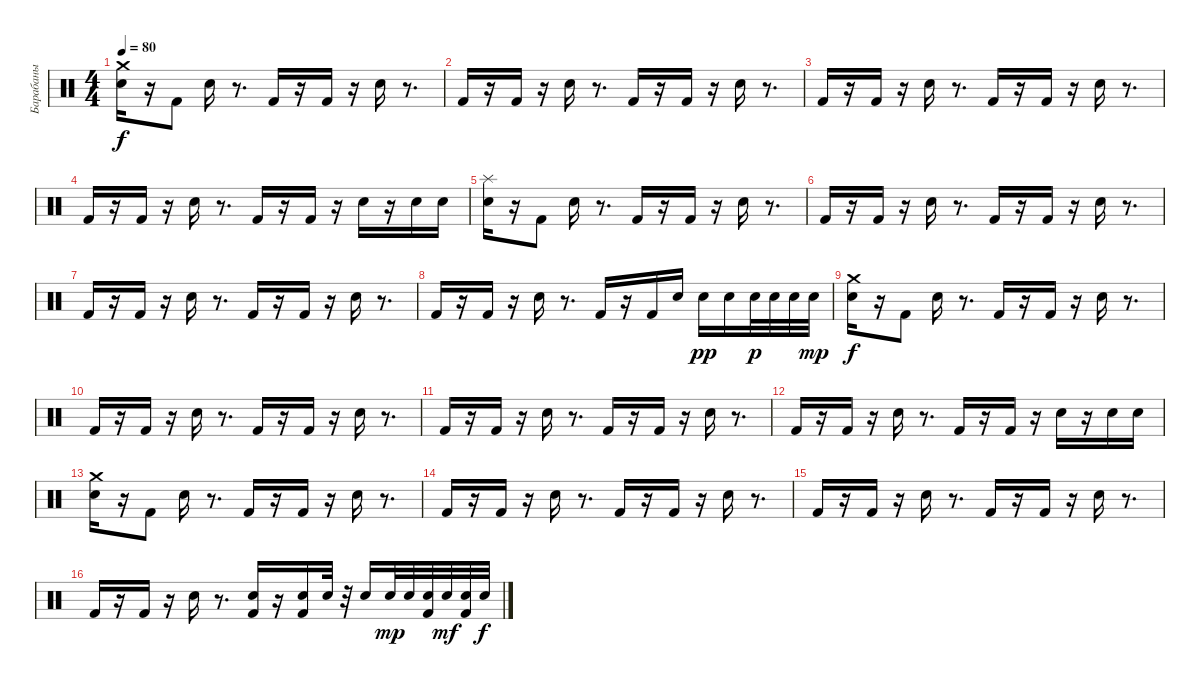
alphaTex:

\track ("Барабаны" "Барабаны") {instrument percussion}
\staff {score}
\articulation defaults
\ts (4 4)
\tempo 80
\clef neutral
\ks c
("Crash medium (hit)" "Snare (hit) 2").16{dy f} r.16 "Kick (hit) 2".8 "Electric Snare (hit)".16 r.8{d} "Kick (hit) 2".16 r.16 "Kick (hit) 2".16 r.16 "Electric Snare (hit)".16 r.8{d} |
"Kick (hit) 2".16 r.16 "Kick (hit) 2".16 r.16 "Electric Snare (hit)".16 r.8{d} "Kick (hit) 2".16 r.16 "Kick (hit) 2".16 r.16 "Electric Snare (hit)".16 r.8{d} |
"Kick (hit) 2".16 r.16 "Kick (hit) 2".16 r.16 "Electric Snare (hit)".16 r.8{d} "Kick (hit) 2".16 r.16 "Kick (hit) 2".16 r.16 "Electric Snare (hit)".16 r.8{d} |
"Kick (hit) 2".16 r.16 "Kick (hit) 2".16 r.16 "Electric Snare (hit)".16 r.8{d} "Kick (hit) 2".16 r.16 "Kick (hit) 2".16 r.16 "Electric Snare (hit)".16 r.16 "Electric Snare (hit)".16 "Electric Snare (hit)".16 |
("Splash (hit)" "Snare (hit) 2").16 r.16 "Kick (hit) 2".8 "Electric Snare (hit)".16 r.8{d} "Kick (hit) 2".16 r.16 "Kick (hit) 2".16 r.16 "Electric Snare (hit)".16 r.8{d} |
"Kick (hit) 2".16 r.16 "Kick (hit) 2".16 r.16 "Electric Snare (hit)".16 r.8{d} "Kick (hit) 2".16 r.16 "Kick (hit) 2".16 r.16 "Electric Snare (hit)".16 r.8{d} |
"Kick (hit) 2".16 r.16 "Kick (hit) 2".16 r.16 "Electric Snare (hit)".16 r.8{d} "Kick (hit) 2".16 r.16 "Kick (hit) 2".16 r.16 "Electric Snare (hit)".16 r.8{d} |
"Kick (hit) 2".16 r.16 "Kick (hit) 2".16 r.16 "Electric Snare (hit)".16 r.8{d} "Kick (hit) 2".16 r.16 "Kick (hit) 2".16 "Electric Snare (hit)".16 "Electric Snare (hit)".16{dy pp} "Electric Snare (hit)".16 "Electric Snare (hit)".32{dy p} "Electric Snare (hit)".32 "Electric Snare (hit)".32 "Electric Snare (hit)".32{dy mp} |
("Crash medium (hit)" "Snare (hit) 2").16{dy f} r.16 "Kick (hit) 2".8 "Electric Snare (hit)".16 r.8{d} "Kick (hit) 2".16 r.16 "Kick (hit) 2".16 r.16 "Electric Snare (hit)".16 r.8{d} |
"Kick (hit) 2".16 r.16 "Kick (hit) 2".16 r.16 "Electric Snare (hit)".16 r.8{d} "Kick (hit) 2".16 r.16 "Kick (hit) 2".16 r.16 "Electric Snare (hit)".16 r.8{d} |
"Kick (hit) 2".16 r.16 "Kick (hit) 2".16 r.16 "Electric Snare (hit)".16 r.8{d} "Kick (hit) 2".16 r.16 "Kick (hit) 2".16 r.16 "Electric Snare (hit)".16 r.8{d} |
"Kick (hit) 2".16 r.16 "Kick (hit) 2".16 r.16 "Electric Snare (hit)".16 r.8{d} "Kick (hit) 2".16 r.16 "Kick (hit) 2".16 r.16 "Electric Snare (hit)".16 r.16 "Electric Snare (hit)".16 "Electric Snare (hit)".16 |
("Crash medium (hit)" "Snare (hit) 2").16 r.16 "Kick (hit) 2".8 "Electric Snare (hit)".16 r.8{d} "Kick (hit) 2".16 r.16 "Kick (hit) 2".16 r.16 "Electric Snare (hit)".16 r.8{d} |
"Kick (hit) 2".16 r.16 "Kick (hit) 2".16 r.16 "Electric Snare (hit)".16 r.8{d} "Kick (hit) 2".16 r.16 "Kick (hit) 2".16 r.16 "Electric Snare (hit)".16 r.8{d} |
"Kick (hit) 2".16 r.16 "Kick (hit) 2".16 r.16 "Electric Snare (hit)".16 r.8{d} "Kick (hit) 2".16 r.16 "Kick (hit) 2".16 r.16 "Electric Snare (hit)".16 r.8{d} |
"Kick (hit) 2".16 r.16 "Kick (hit) 2".16 r.16 "Electric Snare (hit)".16 r.8{d} ("Electric Snare (hit)" "Kick (hit) 2").16 r.16 ("Electric Snare (hit)" "Kick (hit) 2").16 "Electric Snare (hit)".32 r.32 "Electric Snare (hit)".16 "Electric Snare (hit)".32{dy mp} "Electric Snare (hit)".32 ("Kick (hit) 2" "Electric Snare (hit)").32 "Electric Snare (hit)".32{dy mf} ("Kick (hit) 2" "Electric Snare (hit)").32 "Snare (hit) 2".32{dy f}
